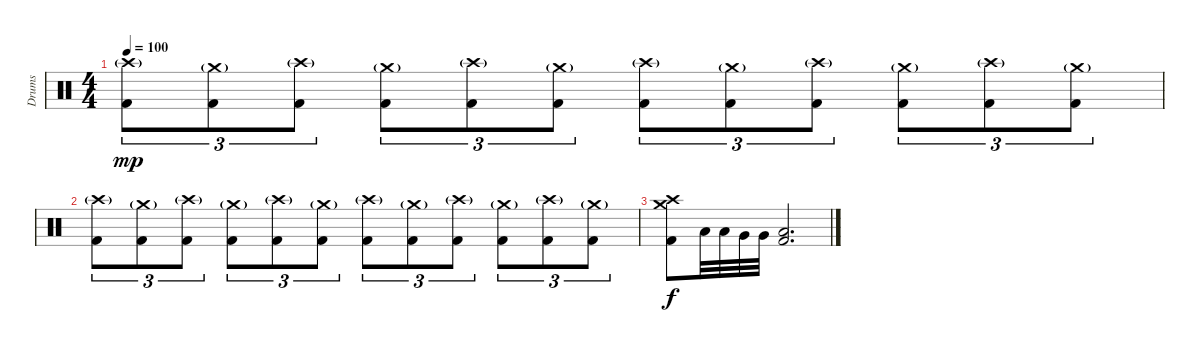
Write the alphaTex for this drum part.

\track ("Drums" "Drums") {instrument percussion}
\staff {score}
\articulation defaults
\ts (4 4)
\tempo 100
\clef neutral
\ks c
("Crash high (hit)"{g} "Kick (hit) 2").8{tu (3 2) dy mp} ("Crash medium (hit)"{g} "Kick (hit) 2").8{tu (3 2)} ("Crash high (hit)"{g} "Kick (hit) 2").8{tu (3 2)} ("Crash medium (hit)"{g} "Kick (hit) 2").8{tu (3 2)} ("Crash high (hit)"{g} "Kick (hit) 2").8{tu (3 2)} ("Crash medium (hit)"{g} "Kick (hit) 2").8{tu (3 2)} ("Crash high (hit)"{g} "Kick (hit) 2").8{tu (3 2)} ("Crash medium (hit)"{g} "Kick (hit) 2").8{tu (3 2)} ("Crash high (hit)"{g} "Kick (hit) 2").8{tu (3 2)} ("Crash medium (hit)"{g} "Kick (hit) 2").8{tu (3 2)} ("Crash high (hit)"{g} "Kick (hit) 2").8{tu (3 2)} ("Crash medium (hit)"{g} "Kick (hit) 2").8{tu (3 2)} |
("Crash high (hit)"{g} "Kick (hit) 2").8{tu (3 2)} ("Crash medium (hit)"{g} "Kick (hit) 2").8{tu (3 2)} ("Crash high (hit)"{g} "Kick (hit) 2").8{tu (3 2)} ("Crash medium (hit)"{g} "Kick (hit) 2").8{tu (3 2)} ("Crash high (hit)"{g} "Kick (hit) 2").8{tu (3 2)} ("Crash medium (hit)"{g} "Kick (hit) 2").8{tu (3 2)} ("Crash high (hit)"{g} "Kick (hit) 2").8{tu (3 2)} ("Crash medium (hit)"{g} "Kick (hit) 2").8{tu (3 2)} ("Crash high (hit)"{g} "Kick (hit) 2").8{tu (3 2)} ("Crash medium (hit)"{g} "Kick (hit) 2").8{tu (3 2)} ("Crash high (hit)"{g} "Kick (hit) 2").8{tu (3 2)} ("Crash medium (hit)"{g} "Kick (hit) 2").8{tu (3 2)} |
("Crash medium (hit)" "Crash high (hit)" "Kick (hit) 2").8{dy f} "Low Tom (hit)".32 "Low Tom (hit)".32 "Very Low Tom (hit)".32 "Very Low Tom (hit)".32 ("Low Floor Tom (hit)" "Kick (hit) 2").2{d}
